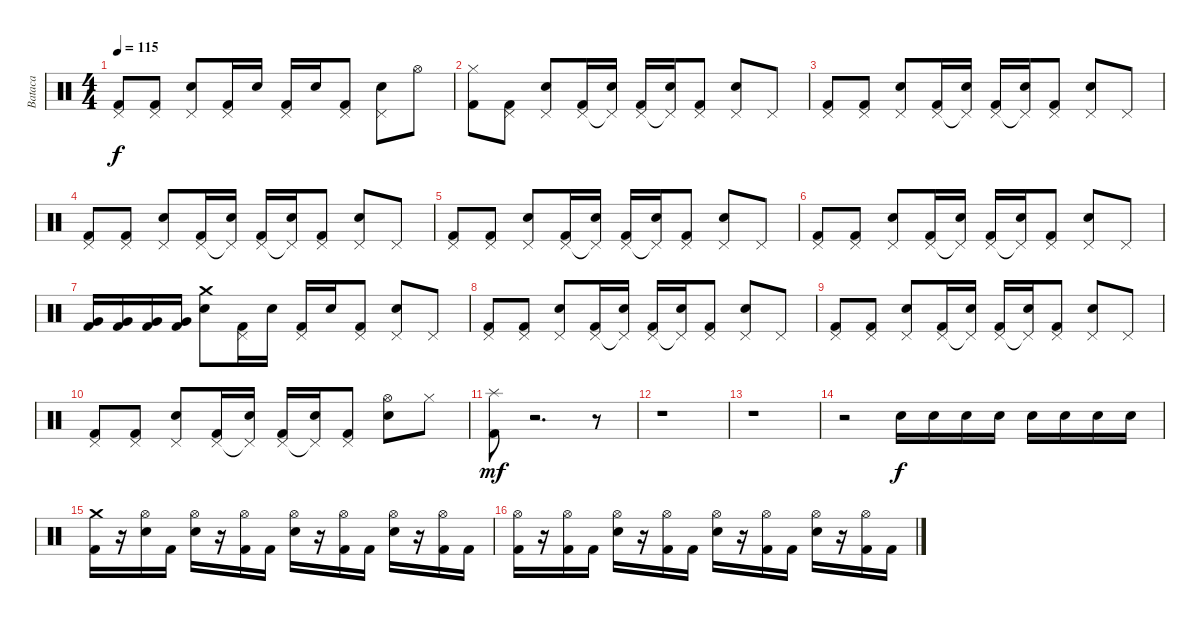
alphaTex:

\track ("Bataca" "Bataca") {instrument percussion}
\staff {score}
\articulation defaults
\ts (4 4)
\tempo 115
\clef neutral
\ks c
("Pedal Hi-Hat (hit)" "Kick (hit) 2").8{dy f} ("Pedal Hi-Hat (hit)" "Kick (hit) 2").8 ("Pedal Hi-Hat (hit)" "Electric Snare (hit)").8 ("Pedal Hi-Hat (hit)" "Kick (hit) 2").16 "Electric Snare (hit)".16 ("Pedal Hi-Hat (hit)" "Kick (hit) 2").16 "Electric Snare (hit)".16 ("Pedal Hi-Hat (hit)" "Kick (hit) 2").8 ("Pedal Hi-Hat (hit)" "Electric Snare (hit)").8 "Hi-Hat (open)".8 |
("Hi-Hat (closed)" "Kick (hit) 2").8 ("Pedal Hi-Hat (hit)" "Kick (hit) 2").8 ("Pedal Hi-Hat (hit)" "Electric Snare (hit)").8 ("Pedal Hi-Hat (hit)" "Kick (hit) 2").16 ("Pedal Hi-Hat (hit)"{t} "Electric Snare (hit)").16 ("Pedal Hi-Hat (hit)" "Kick (hit) 2").16 ("Pedal Hi-Hat (hit)"{t} "Electric Snare (hit)").16 ("Pedal Hi-Hat (hit)" "Kick (hit) 2").8 ("Pedal Hi-Hat (hit)" "Electric Snare (hit)").8 "Pedal Hi-Hat (hit)".8 |
("Pedal Hi-Hat (hit)" "Kick (hit) 2").8 ("Pedal Hi-Hat (hit)" "Kick (hit) 2").8 ("Pedal Hi-Hat (hit)" "Electric Snare (hit)").8 ("Pedal Hi-Hat (hit)" "Kick (hit) 2").16 ("Pedal Hi-Hat (hit)"{t} "Electric Snare (hit)").16 ("Pedal Hi-Hat (hit)" "Kick (hit) 2").16 ("Pedal Hi-Hat (hit)"{t} "Electric Snare (hit)").16 ("Pedal Hi-Hat (hit)" "Kick (hit) 2").8 ("Pedal Hi-Hat (hit)" "Electric Snare (hit)").8 "Pedal Hi-Hat (hit)".8 |
("Pedal Hi-Hat (hit)" "Kick (hit) 2").8 ("Pedal Hi-Hat (hit)" "Kick (hit) 2").8 ("Pedal Hi-Hat (hit)" "Electric Snare (hit)").8 ("Pedal Hi-Hat (hit)" "Kick (hit) 2").16 ("Pedal Hi-Hat (hit)"{t} "Electric Snare (hit)").16 ("Pedal Hi-Hat (hit)" "Kick (hit) 2").16 ("Pedal Hi-Hat (hit)"{t} "Electric Snare (hit)").16 ("Pedal Hi-Hat (hit)" "Kick (hit) 2").8 ("Pedal Hi-Hat (hit)" "Electric Snare (hit)").8 "Pedal Hi-Hat (hit)".8 |
("Pedal Hi-Hat (hit)" "Kick (hit) 2").8 ("Pedal Hi-Hat (hit)" "Kick (hit) 2").8 ("Pedal Hi-Hat (hit)" "Electric Snare (hit)").8 ("Pedal Hi-Hat (hit)" "Kick (hit) 2").16 ("Pedal Hi-Hat (hit)"{t} "Electric Snare (hit)").16 ("Pedal Hi-Hat (hit)" "Kick (hit) 2").16 ("Pedal Hi-Hat (hit)"{t} "Electric Snare (hit)").16 ("Pedal Hi-Hat (hit)" "Kick (hit) 2").8 ("Pedal Hi-Hat (hit)" "Electric Snare (hit)").8 "Pedal Hi-Hat (hit)".8 |
("Pedal Hi-Hat (hit)" "Kick (hit) 2").8 ("Pedal Hi-Hat (hit)" "Kick (hit) 2").8 ("Pedal Hi-Hat (hit)" "Electric Snare (hit)").8 ("Pedal Hi-Hat (hit)" "Kick (hit) 2").16 ("Pedal Hi-Hat (hit)"{t} "Electric Snare (hit)").16 ("Pedal Hi-Hat (hit)" "Kick (hit) 2").16 ("Pedal Hi-Hat (hit)"{t} "Electric Snare (hit)").16 ("Pedal Hi-Hat (hit)" "Kick (hit) 2").8 ("Pedal Hi-Hat (hit)" "Electric Snare (hit)").8 "Pedal Hi-Hat (hit)".8 |
("Very Low Tom (hit)" "Kick (hit) 2").16 ("Very Low Tom (hit)" "Kick (hit) 2").16 ("Very Low Tom (hit)" "Kick (hit) 2").16 ("Very Low Tom (hit)" "Kick (hit) 2").16 ("Crash medium (hit)" "Electric Snare (hit)").8 ("Pedal Hi-Hat (hit)" "Kick (hit) 2").16 "Electric Snare (hit)".16 ("Pedal Hi-Hat (hit)" "Kick (hit) 2").16 "Electric Snare (hit)".16 ("Pedal Hi-Hat (hit)" "Kick (hit) 2").8 ("Pedal Hi-Hat (hit)" "Electric Snare (hit)").8 "Pedal Hi-Hat (hit)".8 |
("Pedal Hi-Hat (hit)" "Kick (hit) 2").8 ("Pedal Hi-Hat (hit)" "Kick (hit) 2").8 ("Pedal Hi-Hat (hit)" "Electric Snare (hit)").8 ("Pedal Hi-Hat (hit)" "Kick (hit) 2").16 ("Pedal Hi-Hat (hit)"{t} "Electric Snare (hit)").16 ("Pedal Hi-Hat (hit)" "Kick (hit) 2").16 ("Pedal Hi-Hat (hit)"{t} "Electric Snare (hit)").16 ("Pedal Hi-Hat (hit)" "Kick (hit) 2").8 ("Pedal Hi-Hat (hit)" "Electric Snare (hit)").8 "Pedal Hi-Hat (hit)".8 |
("Pedal Hi-Hat (hit)" "Kick (hit) 2").8 ("Pedal Hi-Hat (hit)" "Kick (hit) 2").8 ("Pedal Hi-Hat (hit)" "Electric Snare (hit)").8 ("Pedal Hi-Hat (hit)" "Kick (hit) 2").16 ("Pedal Hi-Hat (hit)"{t} "Electric Snare (hit)").16 ("Pedal Hi-Hat (hit)" "Kick (hit) 2").16 ("Pedal Hi-Hat (hit)"{t} "Electric Snare (hit)").16 ("Pedal Hi-Hat (hit)" "Kick (hit) 2").8 ("Pedal Hi-Hat (hit)" "Electric Snare (hit)").8 "Pedal Hi-Hat (hit)".8 |
("Pedal Hi-Hat (hit)" "Kick (hit) 2").8 ("Pedal Hi-Hat (hit)" "Kick (hit) 2").8 ("Pedal Hi-Hat (hit)" "Electric Snare (hit)").8 ("Pedal Hi-Hat (hit)" "Kick (hit) 2").16 ("Pedal Hi-Hat (hit)"{t} "Electric Snare (hit)").16 ("Pedal Hi-Hat (hit)" "Kick (hit) 2").16 ("Pedal Hi-Hat (hit)"{t} "Electric Snare (hit)").16 ("Pedal Hi-Hat (hit)" "Kick (hit) 2").8 ("Hi-Hat (open)" "Electric Snare (hit)").8 "Hi-Hat (closed)".8 |
("Splash (hit)" "Kick (hit) 2").8{dy mf} r.2{d} r.8 |
r.1 |
r.1 |
r.2 "Electric Snare (hit)".16{dy f} "Electric Snare (hit)".16 "Electric Snare (hit)".16 "Electric Snare (hit)".16 "Electric Snare (hit)".16 "Electric Snare (hit)".16 "Electric Snare (hit)".16 "Electric Snare (hit)".16 |
("Crash medium (hit)" "Kick (hit) 2").16 r.16 ("Hi-Hat (open)" "Electric Snare (hit)").16 "Kick (hit) 2".16 ("Hi-Hat (open)" "Electric Snare (hit)").16 r.16 ("Hi-Hat (open)" "Kick (hit) 2").16 "Kick (hit) 2".16 ("Hi-Hat (open)" "Electric Snare (hit)").16 r.16 ("Hi-Hat (open)" "Kick (hit) 2").16 "Kick (hit) 2".16 ("Hi-Hat (open)" "Electric Snare (hit)").16 r.16 ("Hi-Hat (open)" "Kick (hit) 2").16 "Kick (hit) 2".16 |
("Hi-Hat (open)" "Kick (hit) 2").16 r.16 ("Hi-Hat (open)" "Kick (hit) 2").16 "Kick (hit) 2".16 ("Hi-Hat (open)" "Electric Snare (hit)").16 r.16 ("Hi-Hat (open)" "Kick (hit) 2").16 "Kick (hit) 2".16 ("Hi-Hat (open)" "Electric Snare (hit)").16 r.16 ("Hi-Hat (open)" "Kick (hit) 2").16 "Kick (hit) 2".16 ("Hi-Hat (open)" "Electric Snare (hit)").16 r.16 ("Hi-Hat (open)" "Kick (hit) 2").16 "Kick (hit) 2".16
